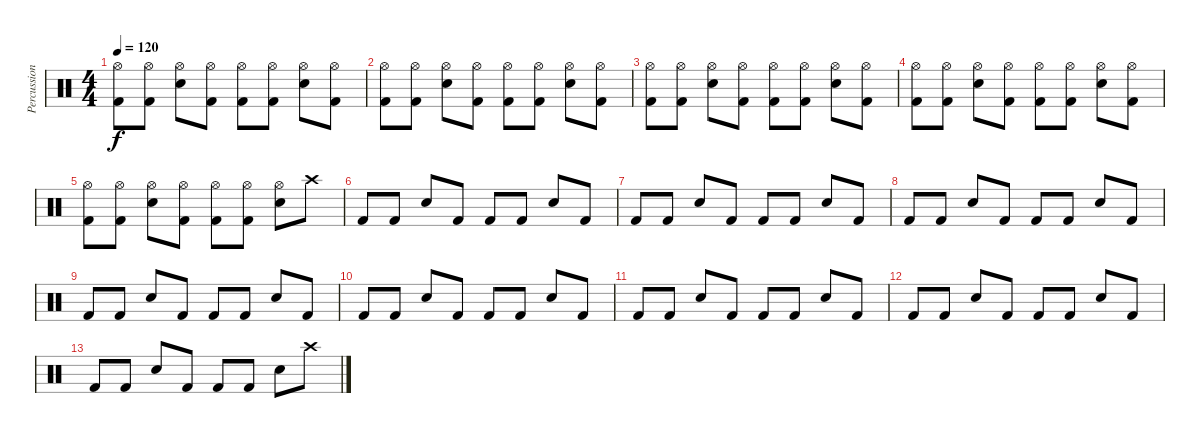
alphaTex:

\track ("Percussion" "Percussion") {instrument percussion}
\staff {score}
\articulation defaults
\ts (4 4)
\tempo 120
\clef neutral
\ks c
("Hi-Hat (open)" "Kick (hit) 2").8{dy f} ("Hi-Hat (open)" "Kick (hit) 2").8 ("Hi-Hat (open)" "Electric Snare (hit)").8 ("Hi-Hat (open)" "Kick (hit) 2").8 ("Hi-Hat (open)" "Kick (hit) 2").8 ("Hi-Hat (open)" "Kick (hit) 2").8 ("Hi-Hat (open)" "Electric Snare (hit)").8 ("Hi-Hat (open)" "Kick (hit) 2").8 |
("Hi-Hat (open)" "Kick (hit) 2").8 ("Hi-Hat (open)" "Kick (hit) 2").8 ("Hi-Hat (open)" "Electric Snare (hit)").8 ("Hi-Hat (open)" "Kick (hit) 2").8 ("Hi-Hat (open)" "Kick (hit) 2").8 ("Hi-Hat (open)" "Kick (hit) 2").8 ("Hi-Hat (open)" "Electric Snare (hit)").8 ("Hi-Hat (open)" "Kick (hit) 2").8 |
("Hi-Hat (open)" "Kick (hit) 2").8 ("Hi-Hat (open)" "Kick (hit) 2").8 ("Hi-Hat (open)" "Electric Snare (hit)").8 ("Hi-Hat (open)" "Kick (hit) 2").8 ("Hi-Hat (open)" "Kick (hit) 2").8 ("Hi-Hat (open)" "Kick (hit) 2").8 ("Hi-Hat (open)" "Electric Snare (hit)").8 ("Hi-Hat (open)" "Kick (hit) 2").8 |
("Hi-Hat (open)" "Kick (hit) 2").8 ("Hi-Hat (open)" "Kick (hit) 2").8 ("Hi-Hat (open)" "Electric Snare (hit)").8 ("Hi-Hat (open)" "Kick (hit) 2").8 ("Hi-Hat (open)" "Kick (hit) 2").8 ("Hi-Hat (open)" "Kick (hit) 2").8 ("Hi-Hat (open)" "Electric Snare (hit)").8 ("Hi-Hat (open)" "Kick (hit) 2").8 |
("Hi-Hat (open)" "Kick (hit) 2").8 ("Hi-Hat (open)" "Kick (hit) 2").8 ("Hi-Hat (open)" "Electric Snare (hit)").8 ("Hi-Hat (open)" "Kick (hit) 2").8 ("Hi-Hat (open)" "Kick (hit) 2").8 ("Hi-Hat (open)" "Kick (hit) 2").8 ("Hi-Hat (open)" "Electric Snare (hit)").8 "Crash high (hit)".8 |
"Kick (hit) 2".8 "Kick (hit) 2".8 "Electric Snare (hit)".8 "Kick (hit) 2".8 "Kick (hit) 2".8 "Kick (hit) 2".8 "Electric Snare (hit)".8 "Kick (hit) 2".8 |
"Kick (hit) 2".8 "Kick (hit) 2".8 "Electric Snare (hit)".8 "Kick (hit) 2".8 "Kick (hit) 2".8 "Kick (hit) 2".8 "Electric Snare (hit)".8 "Kick (hit) 2".8 |
"Kick (hit) 2".8 "Kick (hit) 2".8 "Electric Snare (hit)".8 "Kick (hit) 2".8 "Kick (hit) 2".8 "Kick (hit) 2".8 "Electric Snare (hit)".8 "Kick (hit) 2".8 |
"Kick (hit) 2".8 "Kick (hit) 2".8 "Electric Snare (hit)".8 "Kick (hit) 2".8 "Kick (hit) 2".8 "Kick (hit) 2".8 "Electric Snare (hit)".8 "Kick (hit) 2".8 |
"Kick (hit) 2".8 "Kick (hit) 2".8 "Electric Snare (hit)".8 "Kick (hit) 2".8 "Kick (hit) 2".8 "Kick (hit) 2".8 "Electric Snare (hit)".8 "Kick (hit) 2".8 |
"Kick (hit) 2".8 "Kick (hit) 2".8 "Electric Snare (hit)".8 "Kick (hit) 2".8 "Kick (hit) 2".8 "Kick (hit) 2".8 "Electric Snare (hit)".8 "Kick (hit) 2".8 |
"Kick (hit) 2".8 "Kick (hit) 2".8 "Electric Snare (hit)".8 "Kick (hit) 2".8 "Kick (hit) 2".8 "Kick (hit) 2".8 "Electric Snare (hit)".8 "Kick (hit) 2".8 |
"Kick (hit) 2".8 "Kick (hit) 2".8 "Electric Snare (hit)".8 "Kick (hit) 2".8 "Kick (hit) 2".8 "Kick (hit) 2".8 "Electric Snare (hit)".8 "Crash high (hit)".8
